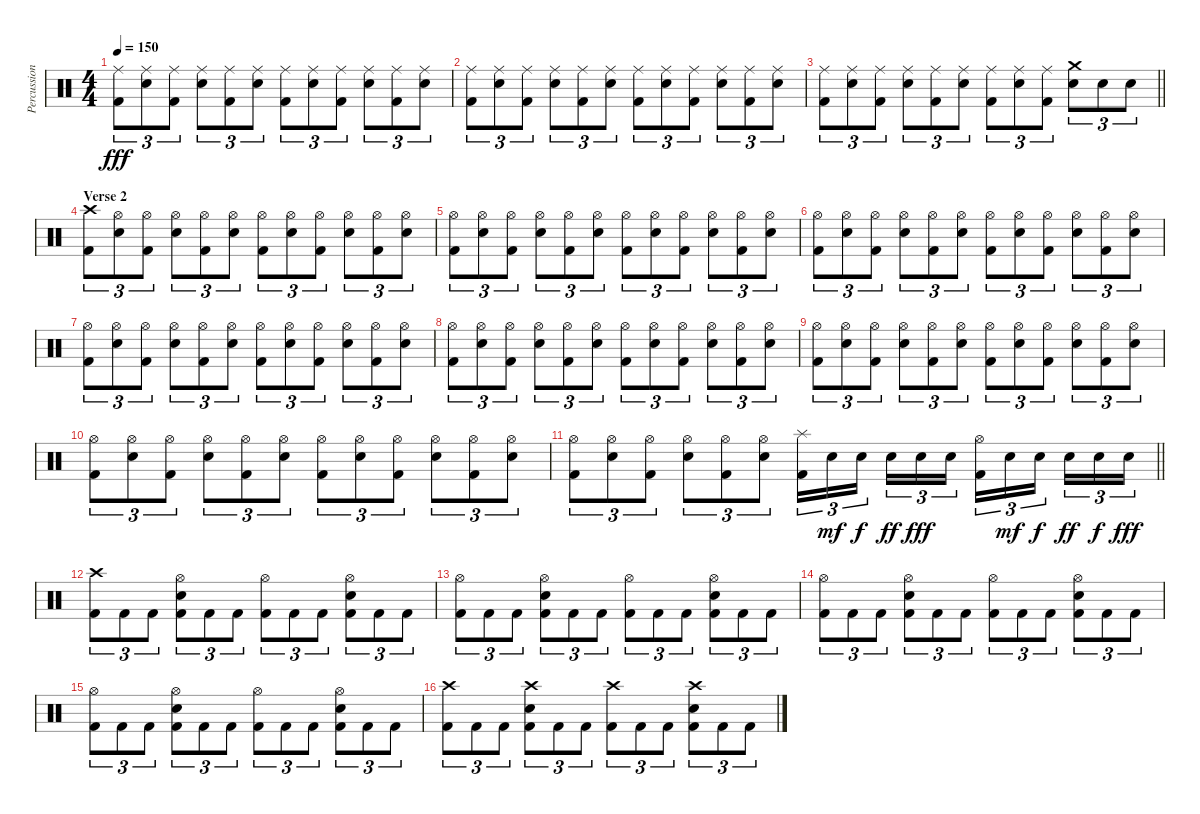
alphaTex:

\track ("Percussion" "Percussion") {instrument percussion}
\staff {score}
\articulation defaults
\ts (4 4)
\tempo 150
\clef neutral
\ks c
("Ride (middle)" "Kick (hit) 2").8{tu (3 2) dy fff} ("Snare (hit) 2" "Ride (middle)").8{tu (3 2)} ("Ride (middle)" "Kick (hit) 2").8{tu (3 2)} ("Snare (hit) 2" "Ride (middle)").8{tu (3 2)} ("Ride (middle)" "Kick (hit) 2").8{tu (3 2)} ("Snare (hit) 2" "Ride (middle)").8{tu (3 2)} ("Ride (middle)" "Kick (hit) 2").8{tu (3 2)} ("Snare (hit) 2" "Ride (middle)").8{tu (3 2)} ("Ride (middle)" "Kick (hit) 2").8{tu (3 2)} ("Snare (hit) 2" "Ride (middle)").8{tu (3 2)} ("Ride (middle)" "Kick (hit) 2").8{tu (3 2)} ("Snare (hit) 2" "Ride (middle)").8{tu (3 2)} |
("Ride (middle)" "Kick (hit) 2").8{tu (3 2)} ("Snare (hit) 2" "Ride (middle)").8{tu (3 2)} ("Ride (middle)" "Kick (hit) 2").8{tu (3 2)} ("Snare (hit) 2" "Ride (middle)").8{tu (3 2)} ("Ride (middle)" "Kick (hit) 2").8{tu (3 2)} ("Snare (hit) 2" "Ride (middle)").8{tu (3 2)} ("Ride (middle)" "Kick (hit) 2").8{tu (3 2)} ("Snare (hit) 2" "Ride (middle)").8{tu (3 2)} ("Ride (middle)" "Kick (hit) 2").8{tu (3 2)} ("Snare (hit) 2" "Ride (middle)").8{tu (3 2)} ("Ride (middle)" "Kick (hit) 2").8{tu (3 2)} ("Snare (hit) 2" "Ride (middle)").8{tu (3 2)} |
\barLineRight lightlight
("Ride (middle)" "Kick (hit) 2").8{tu (3 2)} ("Snare (hit) 2" "Ride (middle)").8{tu (3 2)} ("Ride (middle)" "Kick (hit) 2").8{tu (3 2)} ("Snare (hit) 2" "Ride (middle)").8{tu (3 2)} ("Ride (middle)" "Kick (hit) 2").8{tu (3 2)} ("Snare (hit) 2" "Ride (middle)").8{tu (3 2)} ("Ride (middle)" "Kick (hit) 2").8{tu (3 2)} ("Snare (hit) 2" "Ride (middle)").8{tu (3 2)} ("Ride (middle)" "Kick (hit) 2").8{tu (3 2)} ("Crash medium (hit)" "Snare (hit) 2").8{tu (3 2)} "Snare (hit) 2".8{tu (3 2)} "Snare (hit) 2".8{tu (3 2)} |
\section ("" "Verse 2")
("Crash high (hit)" "Kick (hit) 2").8{tu (3 2)} ("Snare (hit) 2" "Hi-Hat (open)").8{tu (3 2)} ("Hi-Hat (open)" "Kick (hit) 2").8{tu (3 2)} ("Snare (hit) 2" "Hi-Hat (open)").8{tu (3 2)} ("Hi-Hat (open)" "Kick (hit) 2").8{tu (3 2)} ("Snare (hit) 2" "Hi-Hat (open)").8{tu (3 2)} ("Hi-Hat (open)" "Kick (hit) 2").8{tu (3 2)} ("Snare (hit) 2" "Hi-Hat (open)").8{tu (3 2)} ("Hi-Hat (open)" "Kick (hit) 2").8{tu (3 2)} ("Snare (hit) 2" "Hi-Hat (open)").8{tu (3 2)} ("Hi-Hat (open)" "Kick (hit) 2").8{tu (3 2)} ("Snare (hit) 2" "Hi-Hat (open)").8{tu (3 2)} |
("Hi-Hat (open)" "Kick (hit) 2").8{tu (3 2)} ("Snare (hit) 2" "Hi-Hat (open)").8{tu (3 2)} ("Hi-Hat (open)" "Kick (hit) 2").8{tu (3 2)} ("Snare (hit) 2" "Hi-Hat (open)").8{tu (3 2)} ("Hi-Hat (open)" "Kick (hit) 2").8{tu (3 2)} ("Snare (hit) 2" "Hi-Hat (open)").8{tu (3 2)} ("Hi-Hat (open)" "Kick (hit) 2").8{tu (3 2)} ("Snare (hit) 2" "Hi-Hat (open)").8{tu (3 2)} ("Hi-Hat (open)" "Kick (hit) 2").8{tu (3 2)} ("Snare (hit) 2" "Hi-Hat (open)").8{tu (3 2)} ("Hi-Hat (open)" "Kick (hit) 2").8{tu (3 2)} ("Snare (hit) 2" "Hi-Hat (open)").8{tu (3 2)} |
("Hi-Hat (open)" "Kick (hit) 2").8{tu (3 2)} ("Snare (hit) 2" "Hi-Hat (open)").8{tu (3 2)} ("Hi-Hat (open)" "Kick (hit) 2").8{tu (3 2)} ("Snare (hit) 2" "Hi-Hat (open)").8{tu (3 2)} ("Hi-Hat (open)" "Kick (hit) 2").8{tu (3 2)} ("Snare (hit) 2" "Hi-Hat (open)").8{tu (3 2)} ("Hi-Hat (open)" "Kick (hit) 2").8{tu (3 2)} ("Snare (hit) 2" "Hi-Hat (open)").8{tu (3 2)} ("Hi-Hat (open)" "Kick (hit) 2").8{tu (3 2)} ("Snare (hit) 2" "Hi-Hat (open)").8{tu (3 2)} ("Hi-Hat (open)" "Kick (hit) 2").8{tu (3 2)} ("Snare (hit) 2" "Hi-Hat (open)").8{tu (3 2)} |
("Hi-Hat (open)" "Kick (hit) 2").8{tu (3 2)} ("Snare (hit) 2" "Hi-Hat (open)").8{tu (3 2)} ("Hi-Hat (open)" "Kick (hit) 2").8{tu (3 2)} ("Snare (hit) 2" "Hi-Hat (open)").8{tu (3 2)} ("Hi-Hat (open)" "Kick (hit) 2").8{tu (3 2)} ("Snare (hit) 2" "Hi-Hat (open)").8{tu (3 2)} ("Hi-Hat (open)" "Kick (hit) 2").8{tu (3 2)} ("Snare (hit) 2" "Hi-Hat (open)").8{tu (3 2)} ("Hi-Hat (open)" "Kick (hit) 2").8{tu (3 2)} ("Snare (hit) 2" "Hi-Hat (open)").8{tu (3 2)} ("Hi-Hat (open)" "Kick (hit) 2").8{tu (3 2)} ("Snare (hit) 2" "Hi-Hat (open)").8{tu (3 2)} |
("Hi-Hat (open)" "Kick (hit) 2").8{tu (3 2)} ("Snare (hit) 2" "Hi-Hat (open)").8{tu (3 2)} ("Hi-Hat (open)" "Kick (hit) 2").8{tu (3 2)} ("Snare (hit) 2" "Hi-Hat (open)").8{tu (3 2)} ("Hi-Hat (open)" "Kick (hit) 2").8{tu (3 2)} ("Snare (hit) 2" "Hi-Hat (open)").8{tu (3 2)} ("Hi-Hat (open)" "Kick (hit) 2").8{tu (3 2)} ("Snare (hit) 2" "Hi-Hat (open)").8{tu (3 2)} ("Hi-Hat (open)" "Kick (hit) 2").8{tu (3 2)} ("Snare (hit) 2" "Hi-Hat (open)").8{tu (3 2)} ("Hi-Hat (open)" "Kick (hit) 2").8{tu (3 2)} ("Snare (hit) 2" "Hi-Hat (open)").8{tu (3 2)} |
("Hi-Hat (open)" "Kick (hit) 2").8{tu (3 2)} ("Snare (hit) 2" "Hi-Hat (open)").8{tu (3 2)} ("Hi-Hat (open)" "Kick (hit) 2").8{tu (3 2)} ("Snare (hit) 2" "Hi-Hat (open)").8{tu (3 2)} ("Hi-Hat (open)" "Kick (hit) 2").8{tu (3 2)} ("Snare (hit) 2" "Hi-Hat (open)").8{tu (3 2)} ("Hi-Hat (open)" "Kick (hit) 2").8{tu (3 2)} ("Snare (hit) 2" "Hi-Hat (open)").8{tu (3 2)} ("Hi-Hat (open)" "Kick (hit) 2").8{tu (3 2)} ("Snare (hit) 2" "Hi-Hat (open)").8{tu (3 2)} ("Hi-Hat (open)" "Kick (hit) 2").8{tu (3 2)} ("Snare (hit) 2" "Hi-Hat (open)").8{tu (3 2)} |
("Hi-Hat (open)" "Kick (hit) 2").8{tu (3 2)} ("Snare (hit) 2" "Hi-Hat (open)").8{tu (3 2)} ("Hi-Hat (open)" "Kick (hit) 2").8{tu (3 2)} ("Snare (hit) 2" "Hi-Hat (open)").8{tu (3 2)} ("Hi-Hat (open)" "Kick (hit) 2").8{tu (3 2)} ("Snare (hit) 2" "Hi-Hat (open)").8{tu (3 2)} ("Hi-Hat (open)" "Kick (hit) 2").8{tu (3 2)} ("Snare (hit) 2" "Hi-Hat (open)").8{tu (3 2)} ("Hi-Hat (open)" "Kick (hit) 2").8{tu (3 2)} ("Snare (hit) 2" "Hi-Hat (open)").8{tu (3 2)} ("Hi-Hat (open)" "Kick (hit) 2").8{tu (3 2)} ("Snare (hit) 2" "Hi-Hat (open)").8{tu (3 2)} |
\barLineRight lightlight
("Hi-Hat (open)" "Kick (hit) 2").8{tu (3 2)} ("Snare (hit) 2" "Hi-Hat (open)").8{tu (3 2)} ("Hi-Hat (open)" "Kick (hit) 2").8{tu (3 2)} ("Snare (hit) 2" "Hi-Hat (open)").8{tu (3 2)} ("Hi-Hat (open)" "Kick (hit) 2").8{tu (3 2)} ("Snare (hit) 2" "Hi-Hat (open)").8{tu (3 2)} ("Splash (hit)" "Kick (hit) 2").16{tu (3 2)} "Snare (hit) 2".16{tu (3 2) dy mf} "Snare (hit) 2".16{tu (3 2) dy f beam splitsecondary} "Snare (hit) 2".16{tu (3 2) dy ff} "Snare (hit) 2".16{tu (3 2) dy fff} "Snare (hit) 2".16{tu (3 2)} ("Hi-Hat (open)" "Kick (hit) 2").16{tu (3 2)} "Snare (hit) 2".16{tu (3 2) dy mf} "Snare (hit) 2".16{tu (3 2) dy f beam splitsecondary} "Snare (hit) 2".16{tu (3 2) dy ff} "Snare (hit) 2".16{tu (3 2) dy f} "Snare (hit) 2".16{tu (3 2) dy fff} |
\section ("" "")
("Crash high (hit)" "Kick (hit) 2").8{tu (3 2)} "Kick (hit) 2".8{tu (3 2)} "Kick (hit) 2".8{tu (3 2)} ("Snare (hit) 2" "Hi-Hat (open)" "Kick (hit) 2").8{tu (3 2)} "Kick (hit) 2".8{tu (3 2)} "Kick (hit) 2".8{tu (3 2)} ("Hi-Hat (open)" "Kick (hit) 2").8{tu (3 2)} "Kick (hit) 2".8{tu (3 2)} "Kick (hit) 2".8{tu (3 2)} ("Snare (hit) 2" "Hi-Hat (open)" "Kick (hit) 2").8{tu (3 2)} "Kick (hit) 2".8{tu (3 2)} "Kick (hit) 2".8{tu (3 2)} |
("Hi-Hat (open)" "Kick (hit) 2").8{tu (3 2)} "Kick (hit) 2".8{tu (3 2)} "Kick (hit) 2".8{tu (3 2)} ("Snare (hit) 2" "Hi-Hat (open)" "Kick (hit) 2").8{tu (3 2)} "Kick (hit) 2".8{tu (3 2)} "Kick (hit) 2".8{tu (3 2)} ("Hi-Hat (open)" "Kick (hit) 2").8{tu (3 2)} "Kick (hit) 2".8{tu (3 2)} "Kick (hit) 2".8{tu (3 2)} ("Snare (hit) 2" "Hi-Hat (open)" "Kick (hit) 2").8{tu (3 2)} "Kick (hit) 2".8{tu (3 2)} "Kick (hit) 2".8{tu (3 2)} |
("Hi-Hat (open)" "Kick (hit) 2").8{tu (3 2)} "Kick (hit) 2".8{tu (3 2)} "Kick (hit) 2".8{tu (3 2)} ("Snare (hit) 2" "Hi-Hat (open)" "Kick (hit) 2").8{tu (3 2)} "Kick (hit) 2".8{tu (3 2)} "Kick (hit) 2".8{tu (3 2)} ("Hi-Hat (open)" "Kick (hit) 2").8{tu (3 2)} "Kick (hit) 2".8{tu (3 2)} "Kick (hit) 2".8{tu (3 2)} ("Snare (hit) 2" "Hi-Hat (open)" "Kick (hit) 2").8{tu (3 2)} "Kick (hit) 2".8{tu (3 2)} "Kick (hit) 2".8{tu (3 2)} |
("Hi-Hat (open)" "Kick (hit) 2").8{tu (3 2)} "Kick (hit) 2".8{tu (3 2)} "Kick (hit) 2".8{tu (3 2)} ("Snare (hit) 2" "Hi-Hat (open)" "Kick (hit) 2").8{tu (3 2)} "Kick (hit) 2".8{tu (3 2)} "Kick (hit) 2".8{tu (3 2)} ("Hi-Hat (open)" "Kick (hit) 2").8{tu (3 2)} "Kick (hit) 2".8{tu (3 2)} "Kick (hit) 2".8{tu (3 2)} ("Snare (hit) 2" "Hi-Hat (open)" "Kick (hit) 2").8{tu (3 2)} "Kick (hit) 2".8{tu (3 2)} "Kick (hit) 2".8{tu (3 2)} |
("Crash high (hit)" "Kick (hit) 2").8{tu (3 2)} "Kick (hit) 2".8{tu (3 2)} "Kick (hit) 2".8{tu (3 2)} ("Crash high (hit)" "Snare (hit) 2" "Kick (hit) 2").8{tu (3 2)} "Kick (hit) 2".8{tu (3 2)} "Kick (hit) 2".8{tu (3 2)} ("Crash high (hit)" "Kick (hit) 2").8{tu (3 2)} "Kick (hit) 2".8{tu (3 2)} "Kick (hit) 2".8{tu (3 2)} ("Crash high (hit)" "Snare (hit) 2" "Kick (hit) 2").8{tu (3 2)} "Kick (hit) 2".8{tu (3 2)} "Kick (hit) 2".8{tu (3 2)}
